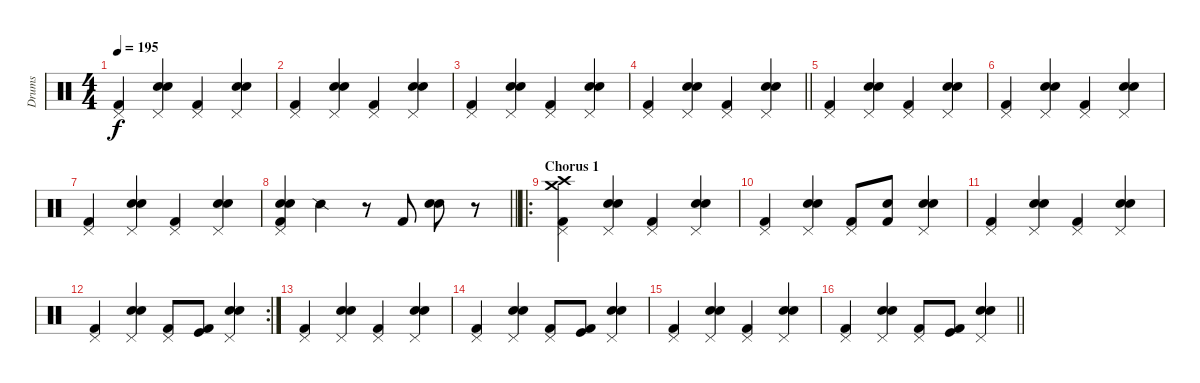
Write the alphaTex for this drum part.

\track ("Drums" "Drums") {instrument percussion}
\staff {score}
\articulation defaults
\ts (4 4)
\tempo 195
\clef neutral
\ks c
("Kick (hit) 2" "Pedal Hi-Hat (hit)").4{dy f} ("Snare (hit) 2" "Electric Snare (hit)" "Pedal Hi-Hat (hit)").4 ("Kick (hit) 2" "Pedal Hi-Hat (hit)").4 ("Snare (hit) 2" "Electric Snare (hit)" "Pedal Hi-Hat (hit)").4 |
("Kick (hit) 2" "Pedal Hi-Hat (hit)").4 ("Snare (hit) 2" "Electric Snare (hit)" "Pedal Hi-Hat (hit)").4 ("Kick (hit) 2" "Pedal Hi-Hat (hit)").4 ("Snare (hit) 2" "Electric Snare (hit)" "Pedal Hi-Hat (hit)").4 |
("Kick (hit) 2" "Pedal Hi-Hat (hit)").4 ("Snare (hit) 2" "Electric Snare (hit)" "Pedal Hi-Hat (hit)").4 ("Kick (hit) 2" "Pedal Hi-Hat (hit)").4 ("Snare (hit) 2" "Electric Snare (hit)" "Pedal Hi-Hat (hit)").4 |
\barLineRight lightlight
("Kick (hit) 2" "Pedal Hi-Hat (hit)").4 ("Snare (hit) 2" "Electric Snare (hit)" "Pedal Hi-Hat (hit)").4 ("Kick (hit) 2" "Pedal Hi-Hat (hit)").4 ("Snare (hit) 2" "Electric Snare (hit)" "Pedal Hi-Hat (hit)").4 |
("Kick (hit) 2" "Pedal Hi-Hat (hit)").4 ("Snare (hit) 2" "Electric Snare (hit)" "Pedal Hi-Hat (hit)").4 ("Kick (hit) 2" "Pedal Hi-Hat (hit)").4 ("Snare (hit) 2" "Electric Snare (hit)" "Pedal Hi-Hat (hit)").4 |
("Kick (hit) 2" "Pedal Hi-Hat (hit)").4 ("Snare (hit) 2" "Electric Snare (hit)" "Pedal Hi-Hat (hit)").4 ("Kick (hit) 2" "Pedal Hi-Hat (hit)").4 ("Snare (hit) 2" "Electric Snare (hit)" "Pedal Hi-Hat (hit)").4 |
("Kick (hit) 2" "Pedal Hi-Hat (hit)").4 ("Snare (hit) 2" "Electric Snare (hit)" "Pedal Hi-Hat (hit)").4 ("Kick (hit) 2" "Pedal Hi-Hat (hit)").4 ("Snare (hit) 2" "Electric Snare (hit)" "Pedal Hi-Hat (hit)").4 |
\barLineRight lightlight
("Kick (hit) 2" "Electric Snare (hit)" "Snare (hit) 2" "Pedal Hi-Hat (hit)").4 "Snare (side stick) 2".4 r.8 "Kick (hit) 2".8 ("Snare (hit) 2" "Electric Snare (hit)").8 r.8 |
\ro
\section ("" "Chorus 1")
("Kick (hit) 2" "Pedal Hi-Hat (hit)" "Crash medium (hit)" "Crash high (hit)").4 ("Snare (hit) 2" "Electric Snare (hit)" "Pedal Hi-Hat (hit)").4 ("Kick (hit) 2" "Pedal Hi-Hat (hit)").4 ("Snare (hit) 2" "Electric Snare (hit)" "Pedal Hi-Hat (hit)").4 |
("Kick (hit) 2" "Pedal Hi-Hat (hit)").4 ("Snare (hit) 2" "Electric Snare (hit)" "Pedal Hi-Hat (hit)").4 ("Kick (hit) 2" "Pedal Hi-Hat (hit)").8 ("Kick (hit) 2" "Electric Snare (hit)").8 ("Snare (hit) 2" "Electric Snare (hit)" "Pedal Hi-Hat (hit)").4 |
("Kick (hit) 2" "Pedal Hi-Hat (hit)").4 ("Snare (hit) 2" "Electric Snare (hit)" "Pedal Hi-Hat (hit)").4 ("Kick (hit) 2" "Pedal Hi-Hat (hit)").4 ("Snare (hit) 2" "Electric Snare (hit)" "Pedal Hi-Hat (hit)").4 |
\rc 2
("Kick (hit) 2" "Pedal Hi-Hat (hit)").4 ("Snare (hit) 2" "Electric Snare (hit)" "Pedal Hi-Hat (hit)").4 ("Kick (hit) 2" "Pedal Hi-Hat (hit)").8 ("Kick (hit) 2" "Kick (hit)").8 ("Snare (hit) 2" "Electric Snare (hit)" "Pedal Hi-Hat (hit)").4 |
("Kick (hit) 2" "Pedal Hi-Hat (hit)").4 ("Snare (hit) 2" "Electric Snare (hit)" "Pedal Hi-Hat (hit)").4 ("Kick (hit) 2" "Pedal Hi-Hat (hit)").4 ("Snare (hit) 2" "Electric Snare (hit)" "Pedal Hi-Hat (hit)").4 |
("Kick (hit) 2" "Pedal Hi-Hat (hit)").4 ("Snare (hit) 2" "Electric Snare (hit)" "Pedal Hi-Hat (hit)").4 ("Kick (hit) 2" "Pedal Hi-Hat (hit)").8 ("Kick (hit) 2" "Kick (hit)").8 ("Snare (hit) 2" "Electric Snare (hit)" "Pedal Hi-Hat (hit)").4 |
("Kick (hit) 2" "Pedal Hi-Hat (hit)").4 ("Snare (hit) 2" "Electric Snare (hit)" "Pedal Hi-Hat (hit)").4 ("Kick (hit) 2" "Pedal Hi-Hat (hit)").4 ("Snare (hit) 2" "Electric Snare (hit)" "Pedal Hi-Hat (hit)").4 |
\barLineRight lightlight
("Kick (hit) 2" "Pedal Hi-Hat (hit)").4 ("Snare (hit) 2" "Electric Snare (hit)" "Pedal Hi-Hat (hit)").4 ("Kick (hit) 2" "Pedal Hi-Hat (hit)").8 ("Kick (hit) 2" "Kick (hit)").8 ("Snare (hit) 2" "Electric Snare (hit)" "Pedal Hi-Hat (hit)").4
